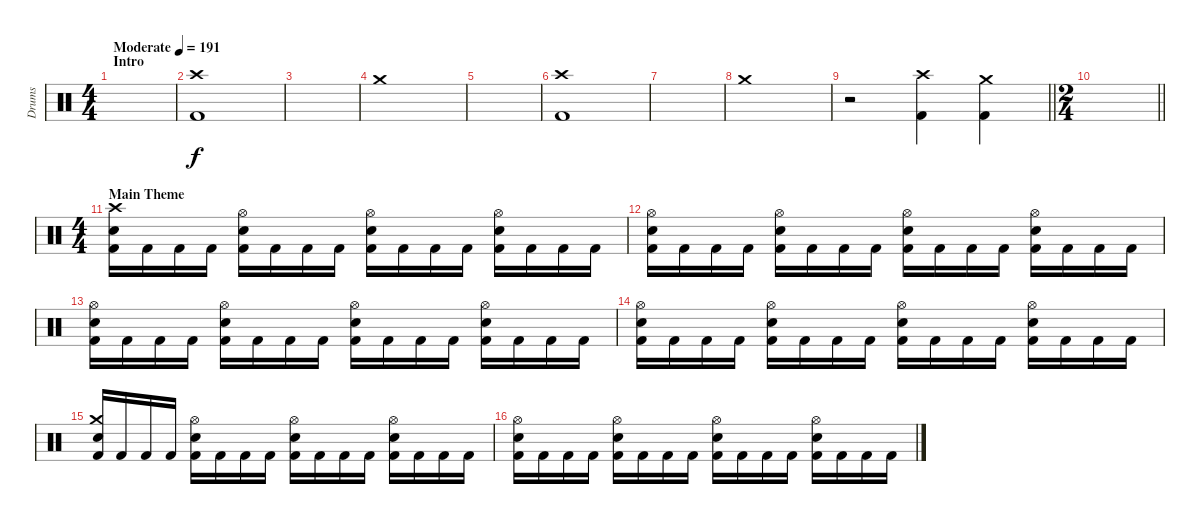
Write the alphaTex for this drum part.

\track ("Drums" "Drums") {instrument percussion}
\staff {score}
\articulation defaults
\ts (4 4)
\section ("" "Intro")
\tempo (191 "Moderate")
\clef neutral
\ks c
|
("Crash high (hit)" "Kick (hit) 2").1 |
|
"Crash medium (hit)".1 |
|
("Crash high (hit)" "Kick (hit) 2").1 |
|
"Crash medium (hit)".1 |
\barLineRight lightlight
r.2 ("Crash high (hit)" "Kick (hit) 2").4 ("Crash medium (hit)" "Kick (hit) 2").4 |
\ts (2 4)
\barLineRight lightlight
|
\ts (4 4)
\section ("" "Main Theme")
("Crash high (hit)" "Snare (hit) 2" "Kick (hit) 2").16 "Kick (hit) 2".16 "Kick (hit) 2".16 "Kick (hit) 2".16 ("Hi-Hat (open)" "Snare (hit) 2" "Kick (hit) 2").16 "Kick (hit) 2".16 "Kick (hit) 2".16 "Kick (hit) 2".16 ("Hi-Hat (open)" "Snare (hit) 2" "Kick (hit) 2").16 "Kick (hit) 2".16 "Kick (hit) 2".16 "Kick (hit) 2".16 ("Hi-Hat (open)" "Snare (hit) 2" "Kick (hit) 2").16 "Kick (hit) 2".16 "Kick (hit) 2".16 "Kick (hit) 2".16 |
("Hi-Hat (open)" "Snare (hit) 2" "Kick (hit) 2").16 "Kick (hit) 2".16 "Kick (hit) 2".16 "Kick (hit) 2".16 ("Hi-Hat (open)" "Snare (hit) 2" "Kick (hit) 2").16 "Kick (hit) 2".16 "Kick (hit) 2".16 "Kick (hit) 2".16 ("Hi-Hat (open)" "Snare (hit) 2" "Kick (hit) 2").16 "Kick (hit) 2".16 "Kick (hit) 2".16 "Kick (hit) 2".16 ("Hi-Hat (open)" "Snare (hit) 2" "Kick (hit) 2").16 "Kick (hit) 2".16 "Kick (hit) 2".16 "Kick (hit) 2".16 |
("Hi-Hat (open)" "Snare (hit) 2" "Kick (hit) 2").16 "Kick (hit) 2".16 "Kick (hit) 2".16 "Kick (hit) 2".16 ("Hi-Hat (open)" "Snare (hit) 2" "Kick (hit) 2").16 "Kick (hit) 2".16 "Kick (hit) 2".16 "Kick (hit) 2".16 ("Hi-Hat (open)" "Snare (hit) 2" "Kick (hit) 2").16 "Kick (hit) 2".16 "Kick (hit) 2".16 "Kick (hit) 2".16 ("Hi-Hat (open)" "Snare (hit) 2" "Kick (hit) 2").16 "Kick (hit) 2".16 "Kick (hit) 2".16 "Kick (hit) 2".16 |
("Hi-Hat (open)" "Snare (hit) 2" "Kick (hit) 2").16 "Kick (hit) 2".16 "Kick (hit) 2".16 "Kick (hit) 2".16 ("Hi-Hat (open)" "Snare (hit) 2" "Kick (hit) 2").16 "Kick (hit) 2".16 "Kick (hit) 2".16 "Kick (hit) 2".16 ("Hi-Hat (open)" "Snare (hit) 2" "Kick (hit) 2").16 "Kick (hit) 2".16 "Kick (hit) 2".16 "Kick (hit) 2".16 ("Hi-Hat (open)" "Snare (hit) 2" "Kick (hit) 2").16 "Kick (hit) 2".16 "Kick (hit) 2".16 "Kick (hit) 2".16 |
("Crash medium (hit)" "Snare (hit) 2" "Kick (hit) 2").16 "Kick (hit) 2".16 "Kick (hit) 2".16 "Kick (hit) 2".16 ("Hi-Hat (open)" "Snare (hit) 2" "Kick (hit) 2").16 "Kick (hit) 2".16 "Kick (hit) 2".16 "Kick (hit) 2".16 ("Hi-Hat (open)" "Snare (hit) 2" "Kick (hit) 2").16 "Kick (hit) 2".16 "Kick (hit) 2".16 "Kick (hit) 2".16 ("Hi-Hat (open)" "Snare (hit) 2" "Kick (hit) 2").16 "Kick (hit) 2".16 "Kick (hit) 2".16 "Kick (hit) 2".16 |
("Hi-Hat (open)" "Snare (hit) 2" "Kick (hit) 2").16 "Kick (hit) 2".16 "Kick (hit) 2".16 "Kick (hit) 2".16 ("Hi-Hat (open)" "Snare (hit) 2" "Kick (hit) 2").16 "Kick (hit) 2".16 "Kick (hit) 2".16 "Kick (hit) 2".16 ("Hi-Hat (open)" "Snare (hit) 2" "Kick (hit) 2").16 "Kick (hit) 2".16 "Kick (hit) 2".16 "Kick (hit) 2".16 ("Hi-Hat (open)" "Snare (hit) 2" "Kick (hit) 2").16 "Kick (hit) 2".16 "Kick (hit) 2".16 "Kick (hit) 2".16
